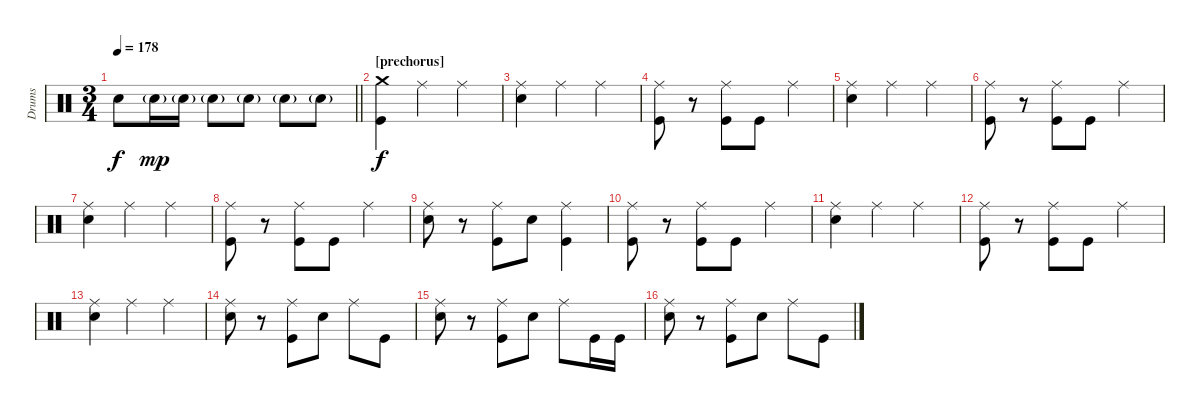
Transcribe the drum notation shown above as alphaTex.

\track ("Drums" "Drums") {instrument percussion}
\staff {score}
\articulation defaults
\ts (3 4)
\tempo 178
\clef neutral
\barLineRight lightlight
\ks c "Snare (hit) 2".8{dy f} "Snare (hit) 2"{g}.16{dy mp} "Snare (hit) 2"{g}.16 "Snare (hit) 2"{g}.8 "Snare (hit) 2"{g}.8 "Snare (hit) 2"{g}.8 "Snare (hit) 2"{g}.8
|
\section ("" "[prechorus]")
("Crash medium (hit)" "Kick (hit)").4{dy f} "Ride (middle)".4 "Ride (middle)".4 |
("Ride (middle)" "Snare (hit) 2").4 "Ride (middle)".4 "Ride (middle)".4 |
("Ride (middle)" "Kick (hit)").8 r.8 ("Ride (middle)" "Kick (hit)").8 "Kick (hit)".8 "Ride (middle)".4 |
("Ride (middle)" "Snare (hit) 2").4 "Ride (middle)".4 "Ride (middle)".4 |
("Ride (middle)" "Kick (hit)").8 r.8 ("Ride (middle)" "Kick (hit)").8 "Kick (hit)".8 "Ride (middle)".4 |
("Ride (middle)" "Snare (hit) 2").4 "Ride (middle)".4 "Ride (middle)".4 |
("Ride (middle)" "Kick (hit)").8 r.8 ("Ride (middle)" "Kick (hit)").8 "Kick (hit)".8 "Ride (middle)".4 |
("Ride (middle)" "Snare (hit) 2").8 r.8 ("Ride (middle)" "Kick (hit)").8 "Snare (hit) 2".8 ("Ride (middle)" "Kick (hit)").4 |
("Ride (middle)" "Kick (hit)").8 r.8 ("Ride (middle)" "Kick (hit)").8 "Kick (hit)".8 "Ride (middle)".4 |
("Ride (middle)" "Snare (hit) 2").4 "Ride (middle)".4 "Ride (middle)".4 |
("Ride (middle)" "Kick (hit)").8 r.8 ("Ride (middle)" "Kick (hit)").8 "Kick (hit)".8 "Ride (middle)".4 |
("Ride (middle)" "Snare (hit) 2").4 "Ride (middle)".4 "Ride (middle)".4 |
("Ride (middle)" "Snare (hit) 2").8 r.8 ("Ride (middle)" "Kick (hit)").8 "Snare (hit) 2".8 "Ride (middle)".8 "Kick (hit)".8 |
("Ride (middle)" "Snare (hit) 2").8 r.8 ("Ride (middle)" "Kick (hit)").8 "Snare (hit) 2".8 "Ride (middle)".8 "Kick (hit)".16 "Kick (hit)".16 |
("Ride (middle)" "Snare (hit) 2").8 r.8 ("Ride (middle)" "Kick (hit)").8 "Snare (hit) 2".8 "Ride (middle)".8 "Kick (hit)".8
